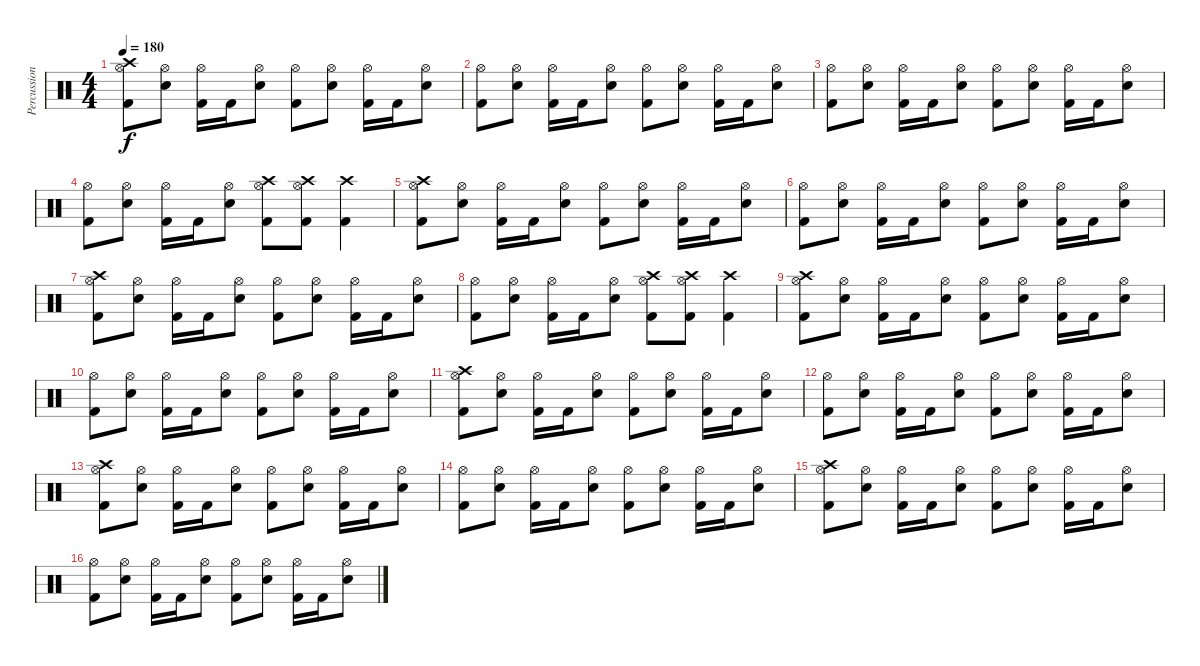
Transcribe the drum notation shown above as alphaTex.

\track ("Percussion" "Percussion") {instrument percussion}
\staff {score}
\articulation defaults
\ts (4 4)
\tempo 180
\clef neutral
\ks c
("Crash high (hit)" "Hi-Hat (open)" "Kick (hit) 2").8{dy f} ("Hi-Hat (open)" "Snare (hit) 2").8 ("Hi-Hat (open)" "Kick (hit) 2").16 "Kick (hit) 2".16 ("Hi-Hat (open)" "Snare (hit) 2").8 ("Hi-Hat (open)" "Kick (hit) 2").8 ("Hi-Hat (open)" "Snare (hit) 2").8 ("Hi-Hat (open)" "Kick (hit) 2").16 "Kick (hit) 2".16 ("Hi-Hat (open)" "Snare (hit) 2").8 |
("Hi-Hat (open)" "Kick (hit) 2").8 ("Hi-Hat (open)" "Snare (hit) 2").8 ("Hi-Hat (open)" "Kick (hit) 2").16 "Kick (hit) 2".16 ("Hi-Hat (open)" "Snare (hit) 2").8 ("Hi-Hat (open)" "Kick (hit) 2").8 ("Hi-Hat (open)" "Snare (hit) 2").8 ("Hi-Hat (open)" "Kick (hit) 2").16 "Kick (hit) 2".16 ("Hi-Hat (open)" "Snare (hit) 2").8 |
("Hi-Hat (open)" "Kick (hit) 2").8 ("Hi-Hat (open)" "Snare (hit) 2").8 ("Hi-Hat (open)" "Kick (hit) 2").16 "Kick (hit) 2".16 ("Hi-Hat (open)" "Snare (hit) 2").8 ("Hi-Hat (open)" "Kick (hit) 2").8 ("Hi-Hat (open)" "Snare (hit) 2").8 ("Hi-Hat (open)" "Kick (hit) 2").16 "Kick (hit) 2".16 ("Hi-Hat (open)" "Snare (hit) 2").8 |
("Hi-Hat (open)" "Kick (hit) 2").8 ("Hi-Hat (open)" "Snare (hit) 2").8 ("Hi-Hat (open)" "Kick (hit) 2").16 "Kick (hit) 2".16 ("Hi-Hat (open)" "Snare (hit) 2").8 ("Crash high (hit)" "Hi-Hat (open)" "Kick (hit) 2").8 ("Crash high (hit)" "Hi-Hat (open)" "Kick (hit) 2").8 ("Crash high (hit)" "Kick (hit) 2").4 |
("Crash high (hit)" "Hi-Hat (open)" "Kick (hit) 2").8 ("Hi-Hat (open)" "Snare (hit) 2").8 ("Hi-Hat (open)" "Kick (hit) 2").16 "Kick (hit) 2".16 ("Hi-Hat (open)" "Snare (hit) 2").8 ("Hi-Hat (open)" "Kick (hit) 2").8 ("Hi-Hat (open)" "Snare (hit) 2").8 ("Hi-Hat (open)" "Kick (hit) 2").16 "Kick (hit) 2".16 ("Hi-Hat (open)" "Snare (hit) 2").8 |
("Hi-Hat (open)" "Kick (hit) 2").8 ("Hi-Hat (open)" "Snare (hit) 2").8 ("Hi-Hat (open)" "Kick (hit) 2").16 "Kick (hit) 2".16 ("Hi-Hat (open)" "Snare (hit) 2").8 ("Hi-Hat (open)" "Kick (hit) 2").8 ("Hi-Hat (open)" "Snare (hit) 2").8 ("Hi-Hat (open)" "Kick (hit) 2").16 "Kick (hit) 2".16 ("Hi-Hat (open)" "Snare (hit) 2").8 |
("Crash high (hit)" "Hi-Hat (open)" "Kick (hit) 2").8 ("Hi-Hat (open)" "Snare (hit) 2").8 ("Hi-Hat (open)" "Kick (hit) 2").16 "Kick (hit) 2".16 ("Hi-Hat (open)" "Snare (hit) 2").8 ("Hi-Hat (open)" "Kick (hit) 2").8 ("Hi-Hat (open)" "Snare (hit) 2").8 ("Hi-Hat (open)" "Kick (hit) 2").16 "Kick (hit) 2".16 ("Hi-Hat (open)" "Snare (hit) 2").8 |
("Hi-Hat (open)" "Kick (hit) 2").8 ("Hi-Hat (open)" "Snare (hit) 2").8 ("Hi-Hat (open)" "Kick (hit) 2").16 "Kick (hit) 2".16 ("Hi-Hat (open)" "Snare (hit) 2").8 ("Crash high (hit)" "Hi-Hat (open)" "Kick (hit) 2").8 ("Crash high (hit)" "Hi-Hat (open)" "Kick (hit) 2").8 ("Crash high (hit)" "Kick (hit) 2").4 |
("Crash high (hit)" "Hi-Hat (open)" "Kick (hit) 2").8 ("Hi-Hat (open)" "Snare (hit) 2").8 ("Hi-Hat (open)" "Kick (hit) 2").16 "Kick (hit) 2".16 ("Hi-Hat (open)" "Snare (hit) 2").8 ("Hi-Hat (open)" "Kick (hit) 2").8 ("Hi-Hat (open)" "Snare (hit) 2").8 ("Hi-Hat (open)" "Kick (hit) 2").16 "Kick (hit) 2".16 ("Hi-Hat (open)" "Snare (hit) 2").8 |
("Hi-Hat (open)" "Kick (hit) 2").8 ("Hi-Hat (open)" "Snare (hit) 2").8 ("Hi-Hat (open)" "Kick (hit) 2").16 "Kick (hit) 2".16 ("Hi-Hat (open)" "Snare (hit) 2").8 ("Hi-Hat (open)" "Kick (hit) 2").8 ("Hi-Hat (open)" "Snare (hit) 2").8 ("Hi-Hat (open)" "Kick (hit) 2").16 "Kick (hit) 2".16 ("Hi-Hat (open)" "Snare (hit) 2").8 |
("Crash high (hit)" "Hi-Hat (open)" "Kick (hit) 2").8 ("Hi-Hat (open)" "Snare (hit) 2").8 ("Hi-Hat (open)" "Kick (hit) 2").16 "Kick (hit) 2".16 ("Hi-Hat (open)" "Snare (hit) 2").8 ("Hi-Hat (open)" "Kick (hit) 2").8 ("Hi-Hat (open)" "Snare (hit) 2").8 ("Hi-Hat (open)" "Kick (hit) 2").16 "Kick (hit) 2".16 ("Hi-Hat (open)" "Snare (hit) 2").8 |
("Hi-Hat (open)" "Kick (hit) 2").8 ("Hi-Hat (open)" "Snare (hit) 2").8 ("Hi-Hat (open)" "Kick (hit) 2").16 "Kick (hit) 2".16 ("Hi-Hat (open)" "Snare (hit) 2").8 ("Hi-Hat (open)" "Kick (hit) 2").8 ("Hi-Hat (open)" "Snare (hit) 2").8 ("Hi-Hat (open)" "Kick (hit) 2").16 "Kick (hit) 2".16 ("Hi-Hat (open)" "Snare (hit) 2").8 |
("Crash high (hit)" "Hi-Hat (open)" "Kick (hit) 2").8 ("Hi-Hat (open)" "Snare (hit) 2").8 ("Hi-Hat (open)" "Kick (hit) 2").16 "Kick (hit) 2".16 ("Hi-Hat (open)" "Snare (hit) 2").8 ("Hi-Hat (open)" "Kick (hit) 2").8 ("Hi-Hat (open)" "Snare (hit) 2").8 ("Hi-Hat (open)" "Kick (hit) 2").16 "Kick (hit) 2".16 ("Hi-Hat (open)" "Snare (hit) 2").8 |
("Hi-Hat (open)" "Kick (hit) 2").8 ("Hi-Hat (open)" "Snare (hit) 2").8 ("Hi-Hat (open)" "Kick (hit) 2").16 "Kick (hit) 2".16 ("Hi-Hat (open)" "Snare (hit) 2").8 ("Hi-Hat (open)" "Kick (hit) 2").8 ("Hi-Hat (open)" "Snare (hit) 2").8 ("Hi-Hat (open)" "Kick (hit) 2").16 "Kick (hit) 2".16 ("Hi-Hat (open)" "Snare (hit) 2").8 |
("Crash high (hit)" "Hi-Hat (open)" "Kick (hit) 2").8 ("Hi-Hat (open)" "Snare (hit) 2").8 ("Hi-Hat (open)" "Kick (hit) 2").16 "Kick (hit) 2".16 ("Hi-Hat (open)" "Snare (hit) 2").8 ("Hi-Hat (open)" "Kick (hit) 2").8 ("Hi-Hat (open)" "Snare (hit) 2").8 ("Hi-Hat (open)" "Kick (hit) 2").16 "Kick (hit) 2".16 ("Hi-Hat (open)" "Snare (hit) 2").8 |
("Hi-Hat (open)" "Kick (hit) 2").8 ("Hi-Hat (open)" "Snare (hit) 2").8 ("Hi-Hat (open)" "Kick (hit) 2").16 "Kick (hit) 2".16 ("Hi-Hat (open)" "Snare (hit) 2").8 ("Hi-Hat (open)" "Kick (hit) 2").8 ("Hi-Hat (open)" "Snare (hit) 2").8 ("Hi-Hat (open)" "Kick (hit) 2").16 "Kick (hit) 2".16 ("Hi-Hat (open)" "Snare (hit) 2").8
